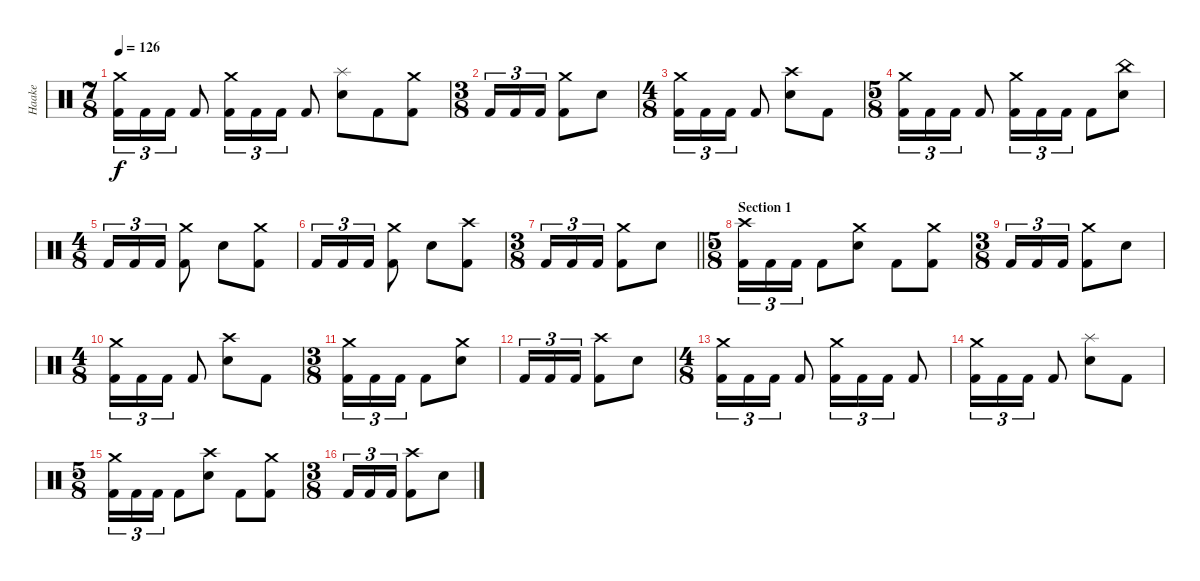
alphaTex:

\track ("Haake" "Haake") {instrument percussion}
\staff {score}
\articulation defaults
\ts (7 8)
\tempo 126
\clef neutral
\ks c
("Crash medium (hit)" "Kick (hit) 2").16{tu (3 2) dy f} "Kick (hit) 2".16{tu (3 2)} "Kick (hit) 2".16{tu (3 2)} "Kick (hit) 2".8 ("Crash medium (hit)" "Kick (hit) 2").16{tu (3 2)} "Kick (hit) 2".16{tu (3 2)} "Kick (hit) 2".16{tu (3 2)} "Kick (hit) 2".8 ("Splash (hit)" "Electric Snare (hit)").8 "Kick (hit) 2".8 ("Crash medium (hit)" "Kick (hit) 2").8 |
\ts (3 8)
"Kick (hit) 2".16{tu (3 2)} "Kick (hit) 2".16{tu (3 2)} "Kick (hit) 2".16{tu (3 2)} ("Crash medium (hit)" "Kick (hit) 2").8 "Electric Snare (hit)".8 |
\ts (4 8)
("Crash medium (hit)" "Kick (hit) 2").16{tu (3 2)} "Kick (hit) 2".16{tu (3 2)} "Kick (hit) 2".16{tu (3 2)} "Kick (hit) 2".8 ("Crash high (hit)" "Electric Snare (hit)").8 "Kick (hit) 2".8 |
\ts (5 8)
("Crash medium (hit)" "Kick (hit) 2").16{tu (3 2)} "Kick (hit) 2".16{tu (3 2)} "Kick (hit) 2".16{tu (3 2)} "Kick (hit) 2".8 ("Crash medium (hit)" "Kick (hit) 2").16{tu (3 2)} "Kick (hit) 2".16{tu (3 2)} "Kick (hit) 2".16{tu (3 2)} "Kick (hit) 2".8 ("China (hit)" "Electric Snare (hit)").8 |
\ts (4 8)
"Kick (hit) 2".16{tu (3 2)} "Kick (hit) 2".16{tu (3 2)} "Kick (hit) 2".16{tu (3 2)} ("Crash medium (hit)" "Kick (hit) 2").8 "Electric Snare (hit)".8 ("Crash medium (hit)" "Kick (hit) 2").8 |
"Kick (hit) 2".16{tu (3 2)} "Kick (hit) 2".16{tu (3 2)} "Kick (hit) 2".16{tu (3 2)} ("Crash medium (hit)" "Kick (hit) 2").8 "Electric Snare (hit)".8 ("Crash high (hit)" "Kick (hit) 2").8 |
\ts (3 8)
\barLineRight lightlight "Kick (hit) 2".16{tu (3 2)} "Kick (hit) 2".16{tu (3 2)} "Kick (hit) 2".16{tu (3 2)}
("Crash medium (hit)" "Kick (hit) 2").8 "Electric Snare (hit)".8 |
\ts (5 8)
\section ("" "Section 1")
("Crash high (hit)" "Kick (hit) 2").16{tu (3 2)} "Kick (hit) 2".16{tu (3 2)} "Kick (hit) 2".16{tu (3 2)} "Kick (hit) 2".8 ("Crash medium (hit)" "Electric Snare (hit)").8 "Kick (hit) 2".8 ("Crash medium (hit)" "Kick (hit) 2").8 |
\ts (3 8)
"Kick (hit) 2".16{tu (3 2)} "Kick (hit) 2".16{tu (3 2)} "Kick (hit) 2".16{tu (3 2)} ("Crash medium (hit)" "Kick (hit) 2").8 "Electric Snare (hit)".8 |
\ts (4 8)
("Crash medium (hit)" "Kick (hit) 2").16{tu (3 2)} "Kick (hit) 2".16{tu (3 2)} "Kick (hit) 2".16{tu (3 2)} "Kick (hit) 2".8 ("Crash high (hit)" "Electric Snare (hit)").8 "Kick (hit) 2".8 |
\ts (3 8)
("Crash medium (hit)" "Kick (hit) 2").16{tu (3 2)} "Kick (hit) 2".16{tu (3 2)} "Kick (hit) 2".16{tu (3 2)} "Kick (hit) 2".8 ("Crash medium (hit)" "Electric Snare (hit)").8 |
"Kick (hit) 2".16{tu (3 2)} "Kick (hit) 2".16{tu (3 2)} "Kick (hit) 2".16{tu (3 2)} ("Crash high (hit)" "Kick (hit) 2").8 "Electric Snare (hit)".8 |
\ts (4 8)
("Crash medium (hit)" "Kick (hit) 2").16{tu (3 2)} "Kick (hit) 2".16{tu (3 2)} "Kick (hit) 2".16{tu (3 2)} "Kick (hit) 2".8 ("Crash medium (hit)" "Kick (hit) 2").16{tu (3 2)} "Kick (hit) 2".16{tu (3 2)} "Kick (hit) 2".16{tu (3 2)} "Kick (hit) 2".8 |
("Crash medium (hit)" "Kick (hit) 2").16{tu (3 2)} "Kick (hit) 2".16{tu (3 2)} "Kick (hit) 2".16{tu (3 2)} "Kick (hit) 2".8 ("Splash (hit)" "Electric Snare (hit)").8 "Kick (hit) 2".8 |
\ts (5 8)
("Crash medium (hit)" "Kick (hit) 2").16{tu (3 2)} "Kick (hit) 2".16{tu (3 2)} "Kick (hit) 2".16{tu (3 2)} "Kick (hit) 2".8 ("Crash high (hit)" "Electric Snare (hit)").8 "Kick (hit) 2".8 ("Crash medium (hit)" "Kick (hit) 2").8 |
\ts (3 8)
"Kick (hit) 2".16{tu (3 2)} "Kick (hit) 2".16{tu (3 2)} "Kick (hit) 2".16{tu (3 2)} ("Crash high (hit)" "Kick (hit) 2").8 "Electric Snare (hit)".8
